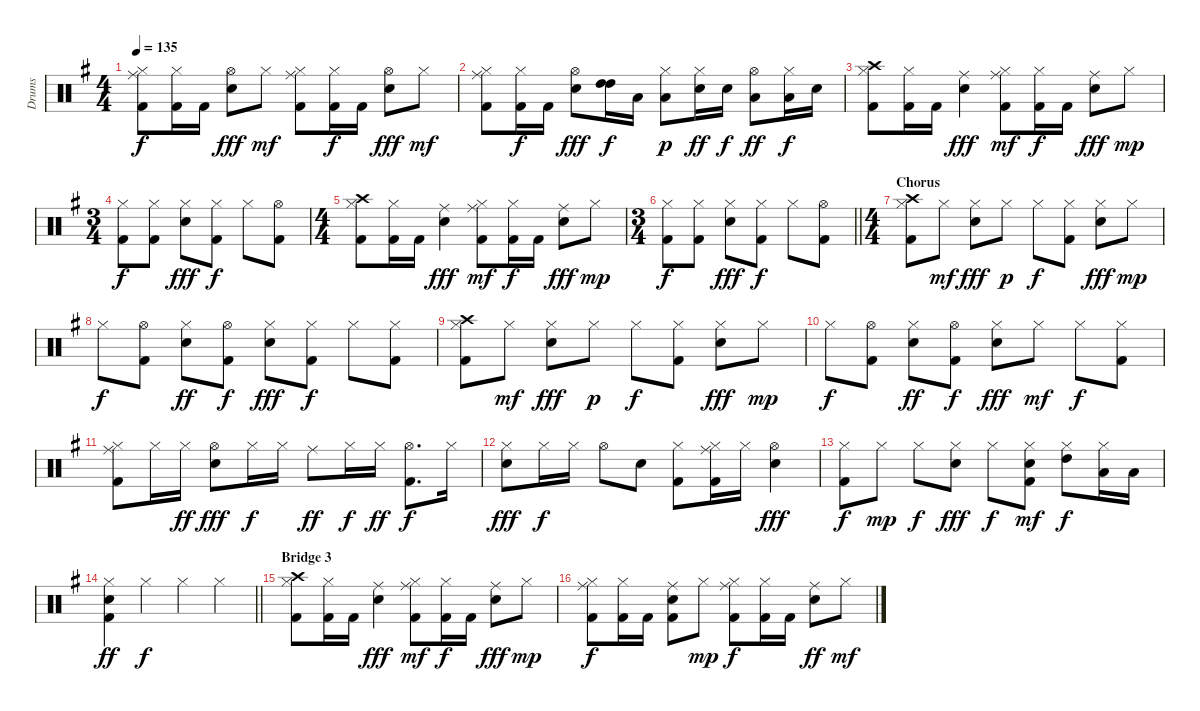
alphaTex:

\track ("Drums" "Drums") {instrument percussion}
\staff {score}
\articulation defaults
\ts (4 4)
\tempo 135
\clef neutral
\ks g
("Hi-Hat (closed)" "Ride (middle)" "Kick (hit) 2").8{dy f} ("Hi-Hat (closed)" "Kick (hit) 2").16 "Kick (hit) 2".16 ("Hi-Hat (open)" "Electric Snare (hit)").8{dy fff} "Hi-Hat (closed)".8{dy mf} ("Hi-Hat (closed)" "Ride (middle)" "Kick (hit) 2").8 ("Hi-Hat (closed)" "Kick (hit) 2").16{dy f} "Kick (hit) 2".16 ("Hi-Hat (open)" "Electric Snare (hit)").8{dy fff} "Hi-Hat (closed)".8{dy mf} |
("Hi-Hat (closed)" "Ride (middle)" "Kick (hit) 2").8 ("Hi-Hat (closed)" "Kick (hit) 2").16{dy f} "Kick (hit) 2".16 ("Hi-Hat (open)" "Electric Snare (hit)").8{dy fff} ("High Tom (hit)" "High Tom (hit)").16{dy f} "Low Tom (hit)".16 ("Hi-Hat (closed)" "Low Floor Tom (hit)").8{dy p} ("Hi-Hat (closed)" "Electric Snare (hit)").16{dy ff} "Electric Snare (hit)".16{dy f} ("Hi-Hat (open)" "Low Tom (hit)").8{dy ff} ("Hi-Hat (closed)" "Low Tom (hit)").16{dy f} "Electric Snare (hit)".16 |
("Hi-Hat (closed)" "Crash high (hit)" "Kick (hit) 2").8 ("Hi-Hat (closed)" "Kick (hit) 2").16 "Kick (hit) 2".16 ("Ride (middle)" "Electric Snare (hit)").4{dy fff} ("Hi-Hat (closed)" "Ride (middle)" "Kick (hit) 2").8{dy mf} ("Hi-Hat (closed)" "Kick (hit) 2").16{dy f} "Kick (hit) 2".16 ("Ride (middle)" "Electric Snare (hit)").8{dy fff} "Hi-Hat (closed)".8{dy mp} |
\ts (3 4)
("Hi-Hat (closed)" "Kick (hit) 2").8{dy f} ("Hi-Hat (closed)" "Kick (hit) 2").8 ("Hi-Hat (closed)" "Electric Snare (hit)").8{dy fff} ("Hi-Hat (closed)" "Kick (hit) 2").8{dy f} "Hi-Hat (closed)".8 ("Hi-Hat (open)" "Kick (hit) 2").8 |
\ts (4 4)
("Hi-Hat (closed)" "Crash high (hit)" "Kick (hit) 2").8 ("Hi-Hat (closed)" "Kick (hit) 2").16 "Kick (hit) 2".16 ("Ride (middle)" "Electric Snare (hit)").4{dy fff} ("Hi-Hat (closed)" "Ride (middle)" "Kick (hit) 2").8{dy mf} ("Hi-Hat (closed)" "Kick (hit) 2").16{dy f} "Kick (hit) 2".16 ("Ride (middle)" "Electric Snare (hit)").8{dy fff} "Hi-Hat (closed)".8{dy mp} |
\ts (3 4)
\barLineRight lightlight
("Hi-Hat (closed)" "Kick (hit) 2").8{dy f} ("Hi-Hat (closed)" "Kick (hit) 2").8 ("Hi-Hat (closed)" "Electric Snare (hit)").8{dy fff} ("Hi-Hat (closed)" "Kick (hit) 2").8{dy f} "Hi-Hat (closed)".8 ("Hi-Hat (open)" "Kick (hit) 2").8 |
\ts (4 4)
\section ("" "Chorus")
("Hi-Hat (closed)" "Crash high (hit)" "Kick (hit) 2").8 "Hi-Hat (closed)".8{dy mf} ("Hi-Hat (closed)" "Electric Snare (hit)").8{dy fff} "Hi-Hat (closed)".8{dy p} "Hi-Hat (closed)".8{dy f} ("Hi-Hat (closed)" "Kick (hit) 2").8 ("Hi-Hat (closed)" "Electric Snare (hit)").8{dy fff} "Hi-Hat (closed)".8{dy mp} |
"Hi-Hat (closed)".8{dy f} ("Hi-Hat (open)" "Kick (hit) 2").8 ("Hi-Hat (closed)" "Electric Snare (hit)").8{dy ff} ("Hi-Hat (open)" "Kick (hit) 2").8{dy f} ("Hi-Hat (closed)" "Electric Snare (hit)").8{dy fff} ("Hi-Hat (closed)" "Kick (hit) 2").8{dy f} "Hi-Hat (closed)".8 ("Hi-Hat (closed)" "Kick (hit) 2").8 |
("Hi-Hat (closed)" "Crash high (hit)" "Kick (hit) 2").8 "Hi-Hat (closed)".8{dy mf} ("Hi-Hat (closed)" "Electric Snare (hit)").8{dy fff} "Hi-Hat (closed)".8{dy p} "Hi-Hat (closed)".8{dy f} ("Hi-Hat (closed)" "Kick (hit) 2").8 ("Hi-Hat (closed)" "Electric Snare (hit)").8{dy fff} "Hi-Hat (closed)".8{dy mp} |
"Hi-Hat (closed)".8{dy f} ("Hi-Hat (open)" "Kick (hit) 2").8 ("Hi-Hat (closed)" "Electric Snare (hit)").8{dy ff} ("Hi-Hat (open)" "Kick (hit) 2").8{dy f} ("Hi-Hat (closed)" "Electric Snare (hit)").8{dy fff} "Hi-Hat (closed)".8{dy mf} "Hi-Hat (closed)".8{dy f} ("Hi-Hat (closed)" "Kick (hit) 2").8 |
("Hi-Hat (closed)" "Ride (middle)" "Kick (hit) 2").8 "Hi-Hat (closed)".16 "Hi-Hat (closed)".16{dy ff} ("Hi-Hat (open)" "Electric Snare (hit)").8{dy fff} "Hi-Hat (closed)".16{dy f} "Hi-Hat (closed)".16 "Ride (middle)".8{dy ff} "Hi-Hat (closed)".16{dy f} "Hi-Hat (closed)".16{dy ff} ("Hi-Hat (open)" "Kick (hit) 2").8{d dy f} "Hi-Hat (closed)".16 |
("Hi-Hat (closed)" "Electric Snare (hit)").8{dy fff} "Hi-Hat (closed)".16{dy f} "Hi-Hat (closed)".16 "Hi-Hat (open)".8 "Electric Snare (hit)".8 ("Hi-Hat (closed)" "Kick (hit) 2").8 ("Hi-Hat (closed)" "Ride (middle)" "Kick (hit) 2").16 "Hi-Hat (closed)".16 ("Hi-Hat (open)" "Electric Snare (hit)").4{dy fff} |
("Hi-Hat (closed)" "Kick (hit) 2").8{dy f} "Hi-Hat (closed)".8{dy mp} "Hi-Hat (closed)".8{dy f} ("Hi-Hat (closed)" "Electric Snare (hit)").8{dy fff} "Hi-Hat (closed)".8{dy f} ("Hi-Hat (closed)" "Electric Snare (hit)" "Kick (hit) 2").8{dy mf} ("Hi-Hat (closed)" "High Tom (hit)").8{dy f} ("Hi-Hat (closed)" "Low Tom (hit)").16 "Low Floor Tom (hit)".16 |
\barLineRight lightlight
("Hi-Hat (closed)" "Electric Snare (hit)" "Kick (hit) 2").4{dy ff} "Hi-Hat (closed)".4{dy f} "Hi-Hat (closed)".4 "Hi-Hat (closed)".4 |
\section ("" "Bridge 3")
("Hi-Hat (closed)" "Crash high (hit)" "Kick (hit) 2").8 ("Hi-Hat (closed)" "Kick (hit) 2").16 "Kick (hit) 2".16 ("Ride (middle)" "Electric Snare (hit)").4{dy fff} ("Hi-Hat (closed)" "Ride (middle)" "Kick (hit) 2").8{dy mf} ("Hi-Hat (closed)" "Kick (hit) 2").16{dy f} "Kick (hit) 2".16 ("Ride (middle)" "Electric Snare (hit)").8{dy fff} "Hi-Hat (closed)".8{dy mp} |
("Hi-Hat (closed)" "Ride (middle)" "Kick (hit) 2").8{dy f} ("Hi-Hat (closed)" "Kick (hit) 2").16 "Kick (hit) 2".16 ("Ride (middle)" "Electric Snare (hit)" "Kick (hit) 2").8 "Hi-Hat (closed)".8{dy mp} ("Hi-Hat (closed)" "Ride (middle)" "Kick (hit) 2").8{dy f} ("Hi-Hat (closed)" "Kick (hit) 2").16 "Kick (hit) 2".16 ("Ride (middle)" "Electric Snare (hit)").8{dy ff} "Hi-Hat (closed)".8{dy mf}
